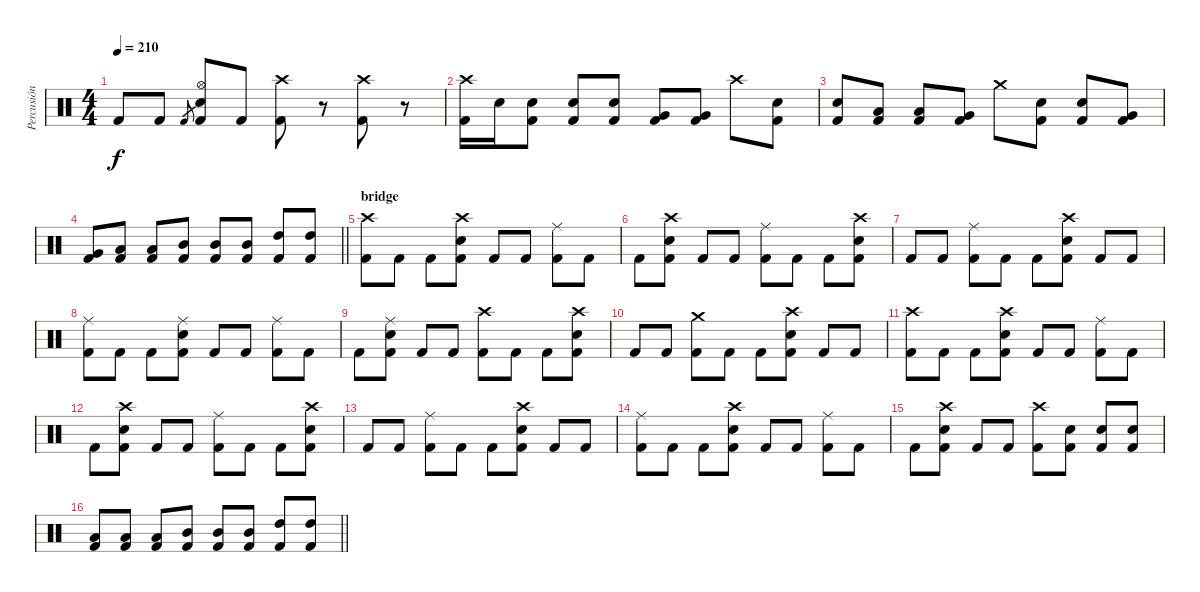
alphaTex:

\track ("Percusión" "Percusión") {instrument percussion}
\staff {score}
\articulation defaults
\ts (4 4)
\tempo 210
\clef neutral
\ks c "Kick (hit) 2".8{dy f} "Kick (hit) 2".8 "Kick (hit) 2".8{gr}
("Hi-Hat (open)" "Snare (hit) 2" "Kick (hit) 2").8 "Kick (hit) 2".8 ("Crash high (hit)" "Kick (hit) 2").8 r.8 ("Crash high (hit)" "Kick (hit) 2").8 r.8 |
("Crash high (hit)" "Kick (hit) 2").16 "Electric Snare (hit)".16 ("Electric Snare (hit)" "Kick (hit) 2").8 ("Electric Snare (hit)" "Kick (hit) 2").8 ("Electric Snare (hit)" "Kick (hit) 2").8 ("Very Low Tom (hit)" "Kick (hit) 2").8 ("Very Low Tom (hit)" "Kick (hit) 2").8 "Crash high (hit)".8 ("Electric Snare (hit)" "Kick (hit) 2").8 |
("Electric Snare (hit)" "Kick (hit) 2").8 ("Low Tom (hit)" "Kick (hit) 2").8 ("Low Tom (hit)" "Kick (hit) 2").8 ("Very Low Tom (hit)" "Kick (hit) 2").8 "Crash medium (hit)".8 ("Electric Snare (hit)" "Kick (hit) 2").8 ("Electric Snare (hit)" "Kick (hit) 2").8 ("Very Low Tom (hit)" "Kick (hit) 2").8 |
\barLineRight lightlight
("Very Low Tom (hit)" "Kick (hit) 2").8 ("Low Tom (hit)" "Kick (hit) 2").8 ("Low Tom (hit)" "Kick (hit) 2").8 ("Mid Tom (hit)" "Kick (hit) 2").8 ("Mid Tom (hit)" "Kick (hit) 2").8 ("Mid Tom (hit)" "Kick (hit) 2").8 ("High Tom (hit)" "Kick (hit) 2").8 ("High Tom (hit)" "Kick (hit) 2").8 |
\section ("" "bridge")
("Crash high (hit)" "Kick (hit) 2").8 "Kick (hit) 2".8 "Kick (hit) 2".8 ("Crash high (hit)" "Snare (hit) 2" "Kick (hit) 2").8 "Kick (hit) 2".8 "Kick (hit) 2".8 ("Ride (middle)" "Kick (hit) 2").8 "Kick (hit) 2".8 |
"Kick (hit) 2".8 ("Crash high (hit)" "Snare (hit) 2" "Kick (hit) 2").8 "Kick (hit) 2".8 "Kick (hit) 2".8 ("Ride (middle)" "Kick (hit) 2").8 "Kick (hit) 2".8 "Kick (hit) 2".8 ("Crash high (hit)" "Snare (hit) 2" "Kick (hit) 2").8 |
"Kick (hit) 2".8 "Kick (hit) 2".8 ("Ride (middle)" "Kick (hit) 2").8 "Kick (hit) 2".8 "Kick (hit) 2".8 ("Crash high (hit)" "Snare (hit) 2" "Kick (hit) 2").8 "Kick (hit) 2".8 "Kick (hit) 2".8 |
("Ride (middle)" "Kick (hit) 2").8 "Kick (hit) 2".8 "Kick (hit) 2".8 ("Ride (middle)" "Snare (hit) 2" "Kick (hit) 2").8 "Kick (hit) 2".8 "Kick (hit) 2".8 ("Ride (middle)" "Kick (hit) 2").8 "Kick (hit) 2".8 |
"Kick (hit) 2".8 ("Ride (middle)" "Snare (hit) 2" "Kick (hit) 2").8 "Kick (hit) 2".8 "Kick (hit) 2".8 ("Crash high (hit)" "Kick (hit) 2").8 "Kick (hit) 2".8 "Kick (hit) 2".8 ("Crash high (hit)" "Snare (hit) 2" "Kick (hit) 2").8 |
"Kick (hit) 2".8 "Kick (hit) 2".8 ("Crash medium (hit)" "Kick (hit) 2").8 "Kick (hit) 2".8 "Kick (hit) 2".8 ("Crash high (hit)" "Snare (hit) 2" "Kick (hit) 2").8 "Kick (hit) 2".8 "Kick (hit) 2".8 |
("Crash high (hit)" "Kick (hit) 2").8 "Kick (hit) 2".8 "Kick (hit) 2".8 ("Crash high (hit)" "Snare (hit) 2" "Kick (hit) 2").8 "Kick (hit) 2".8 "Kick (hit) 2".8 ("Ride (middle)" "Kick (hit) 2").8 "Kick (hit) 2".8 |
"Kick (hit) 2".8 ("Crash high (hit)" "Snare (hit) 2" "Kick (hit) 2").8 "Kick (hit) 2".8 "Kick (hit) 2".8 ("Ride (middle)" "Kick (hit) 2").8 "Kick (hit) 2".8 "Kick (hit) 2".8 ("Crash high (hit)" "Snare (hit) 2" "Kick (hit) 2").8 |
"Kick (hit) 2".8 "Kick (hit) 2".8 ("Ride (middle)" "Kick (hit) 2").8 "Kick (hit) 2".8 "Kick (hit) 2".8 ("Crash high (hit)" "Snare (hit) 2" "Kick (hit) 2").8 "Kick (hit) 2".8 "Kick (hit) 2".8 |
("Ride (middle)" "Kick (hit) 2").8 "Kick (hit) 2".8 "Kick (hit) 2".8 ("Crash high (hit)" "Snare (hit) 2" "Kick (hit) 2").8 "Kick (hit) 2".8 "Kick (hit) 2".8 ("Ride (middle)" "Kick (hit) 2").8 "Kick (hit) 2".8 |
"Kick (hit) 2".8 ("Crash high (hit)" "Snare (hit) 2" "Kick (hit) 2").8 "Kick (hit) 2".8 "Kick (hit) 2".8 ("Crash high (hit)" "Kick (hit) 2").8 ("Electric Snare (hit)" "Kick (hit) 2").8 ("Electric Snare (hit)" "Kick (hit) 2").8 ("Electric Snare (hit)" "Kick (hit) 2").8 |
\barLineRight lightlight
("Low Tom (hit)" "Kick (hit) 2").8 ("Low Tom (hit)" "Kick (hit) 2").8 ("Low Tom (hit)" "Kick (hit) 2").8 ("Mid Tom (hit)" "Kick (hit) 2").8 ("Mid Tom (hit)" "Kick (hit) 2").8 ("Mid Tom (hit)" "Kick (hit) 2").8 ("High Tom (hit)" "Kick (hit) 2").8 ("High Tom (hit)" "Kick (hit) 2").8
